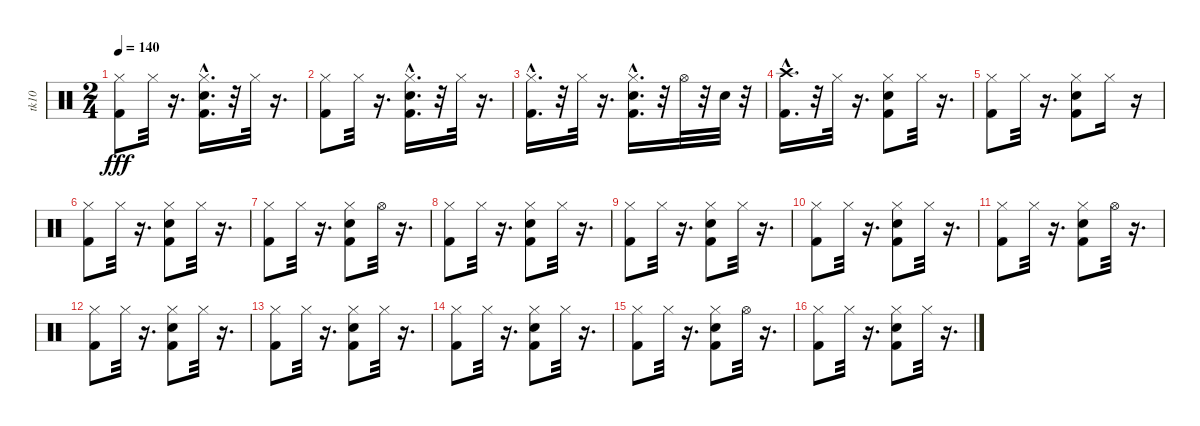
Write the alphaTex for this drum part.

\track ("tk10" "tk10") {instrument percussion}
\staff {score}
\articulation defaults
\ts (2 4)
\tempo 140
\clef neutral
\ks c
("Kick (hit) 2" "Hi-Hat (closed)").8{dy fff} "Hi-Hat (closed)".32 r.16{d} ("Snare (hit) 2"{hac} "Kick (hit) 2"{hac} "Hi-Hat (closed)").16{d} r.32 "Hi-Hat (closed)".32 r.16{d} |
("Kick (hit) 2" "Hi-Hat (closed)").8 "Hi-Hat (closed)".32 r.16{d} ("Snare (hit) 2"{hac} "Kick (hit) 2"{hac} "Hi-Hat (closed)").16{d} r.32 "Hi-Hat (closed)".32 r.16{d} |
("Kick (hit) 2"{hac} "Hi-Hat (closed)").16{d} r.32 "Hi-Hat (closed)".32 r.16{d} ("Kick (hit) 2"{hac} "Hi-Hat (closed)" "Snare (hit) 2"{hac}).16{d} r.32 "Hi-Hat (open)".32 r.32 "Snare (hit) 2".32 r.32 |
("Kick (hit) 2"{hac} "Crash high (hit)").16{d} r.32 "Hi-Hat (closed)".32 r.16{d} ("Kick (hit) 2" "Snare (hit) 2" "Hi-Hat (closed)").8 "Hi-Hat (closed)".32 r.16{d} |
("Kick (hit) 2" "Hi-Hat (closed)").8 "Hi-Hat (closed)".32 r.16{d} ("Snare (hit) 2" "Kick (hit) 2" "Hi-Hat (closed)").8 "Hi-Hat (closed)".16 r.16 |
("Kick (hit) 2" "Hi-Hat (closed)").8 "Hi-Hat (closed)".32 r.16{d} ("Hi-Hat (closed)" "Snare (hit) 2" "Kick (hit) 2").8 "Hi-Hat (closed)".32 r.16{d} |
("Kick (hit) 2" "Hi-Hat (closed)").8 "Hi-Hat (closed)".32 r.16{d} ("Snare (hit) 2" "Hi-Hat (closed)" "Kick (hit) 2").8 "Hi-Hat (open)".32 r.16{d} |
("Kick (hit) 2" "Hi-Hat (closed)").8 "Hi-Hat (closed)".32 r.16{d} ("Kick (hit) 2" "Hi-Hat (closed)" "Snare (hit) 2").8 "Hi-Hat (closed)".32 r.16{d} |
("Kick (hit) 2" "Hi-Hat (closed)").8 "Hi-Hat (closed)".32 r.16{d} ("Kick (hit) 2" "Hi-Hat (closed)" "Snare (hit) 2").8 "Hi-Hat (closed)".32 r.16{d} |
("Kick (hit) 2" "Hi-Hat (closed)").8 "Hi-Hat (closed)".32 r.16{d} ("Snare (hit) 2" "Kick (hit) 2" "Hi-Hat (closed)").8 "Hi-Hat (closed)".32 r.16{d} |
("Kick (hit) 2" "Hi-Hat (closed)").8 "Hi-Hat (closed)".32 r.16{d} ("Snare (hit) 2" "Hi-Hat (closed)" "Kick (hit) 2").8 "Hi-Hat (open)".32 r.16{d} |
("Kick (hit) 2" "Hi-Hat (closed)").8 "Hi-Hat (closed)".32 r.16{d} ("Snare (hit) 2" "Kick (hit) 2" "Hi-Hat (closed)").8 "Hi-Hat (closed)".32 r.16{d} |
("Kick (hit) 2" "Hi-Hat (closed)").8 "Hi-Hat (closed)".32 r.16{d} ("Snare (hit) 2" "Kick (hit) 2" "Hi-Hat (closed)").8 "Hi-Hat (closed)".32 r.16{d} |
("Kick (hit) 2" "Hi-Hat (closed)").8 "Hi-Hat (closed)".32 r.16{d} ("Kick (hit) 2" "Hi-Hat (closed)" "Snare (hit) 2").8 "Hi-Hat (closed)".32 r.16{d} |
("Kick (hit) 2" "Hi-Hat (closed)").8 "Hi-Hat (closed)".32 r.16{d} ("Hi-Hat (closed)" "Snare (hit) 2" "Kick (hit) 2").8 "Hi-Hat (open)".32 r.16{d} |
("Kick (hit) 2" "Hi-Hat (closed)").8 "Hi-Hat (closed)".32 r.16{d} ("Kick (hit) 2" "Hi-Hat (closed)" "Snare (hit) 2").8 "Hi-Hat (closed)".32 r.16{d}
